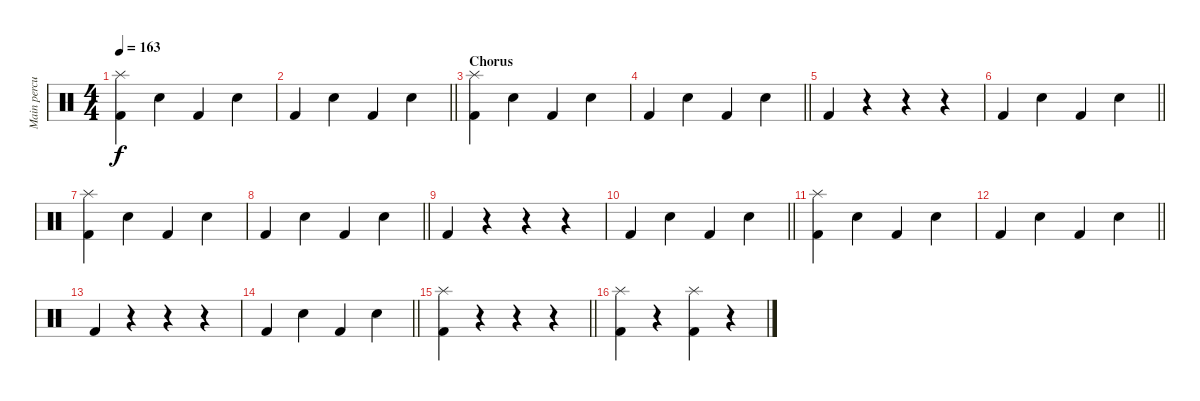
\track ("Main percussion" "Main percu") {instrument percussion}
\staff {score}
\articulation defaults
\ts (4 4)
\tempo 163
\clef neutral
\ks c
("Kick (hit) 2" "Splash (hit)").4{dy f} "Electric Snare (hit)".4 "Kick (hit) 2".4 "Electric Snare (hit)".4 |
\barLineRight lightlight "Kick (hit) 2".4 "Electric Snare (hit)".4 "Kick (hit) 2".4 "Electric Snare (hit)".4
|
\section ("" "Chorus")
("Kick (hit) 2" "Splash (hit)").4 "Electric Snare (hit)".4 "Kick (hit) 2".4 "Electric Snare (hit)".4 |
\barLineRight lightlight "Kick (hit) 2".4 "Electric Snare (hit)".4 "Kick (hit) 2".4 "Electric Snare (hit)".4
|
"Kick (hit) 2".4 r.4 r.4 r.4 |
\barLineRight lightlight "Kick (hit) 2".4 "Electric Snare (hit)".4 "Kick (hit) 2".4 "Electric Snare (hit)".4
|
("Kick (hit) 2" "Splash (hit)").4 "Electric Snare (hit)".4 "Kick (hit) 2".4 "Electric Snare (hit)".4 |
\barLineRight lightlight "Kick (hit) 2".4 "Electric Snare (hit)".4 "Kick (hit) 2".4 "Electric Snare (hit)".4
|
"Kick (hit) 2".4 r.4 r.4 r.4 |
\barLineRight lightlight "Kick (hit) 2".4 "Electric Snare (hit)".4 "Kick (hit) 2".4 "Electric Snare (hit)".4
|
("Kick (hit) 2" "Splash (hit)").4 "Electric Snare (hit)".4 "Kick (hit) 2".4 "Electric Snare (hit)".4 |
\barLineRight lightlight "Kick (hit) 2".4 "Electric Snare (hit)".4 "Kick (hit) 2".4 "Electric Snare (hit)".4
|
"Kick (hit) 2".4 r.4 r.4 r.4 |
\barLineRight lightlight "Kick (hit) 2".4 "Electric Snare (hit)".4 "Kick (hit) 2".4 "Electric Snare (hit)".4
|
\section ("" "")
\barLineRight lightlight
("Kick (hit) 2" "Splash (hit)").4 r.4 r.4 r.4 |
("Kick (hit) 2" "Splash (hit)").4 r.4 ("Kick (hit) 2" "Splash (hit)").4 r.4
